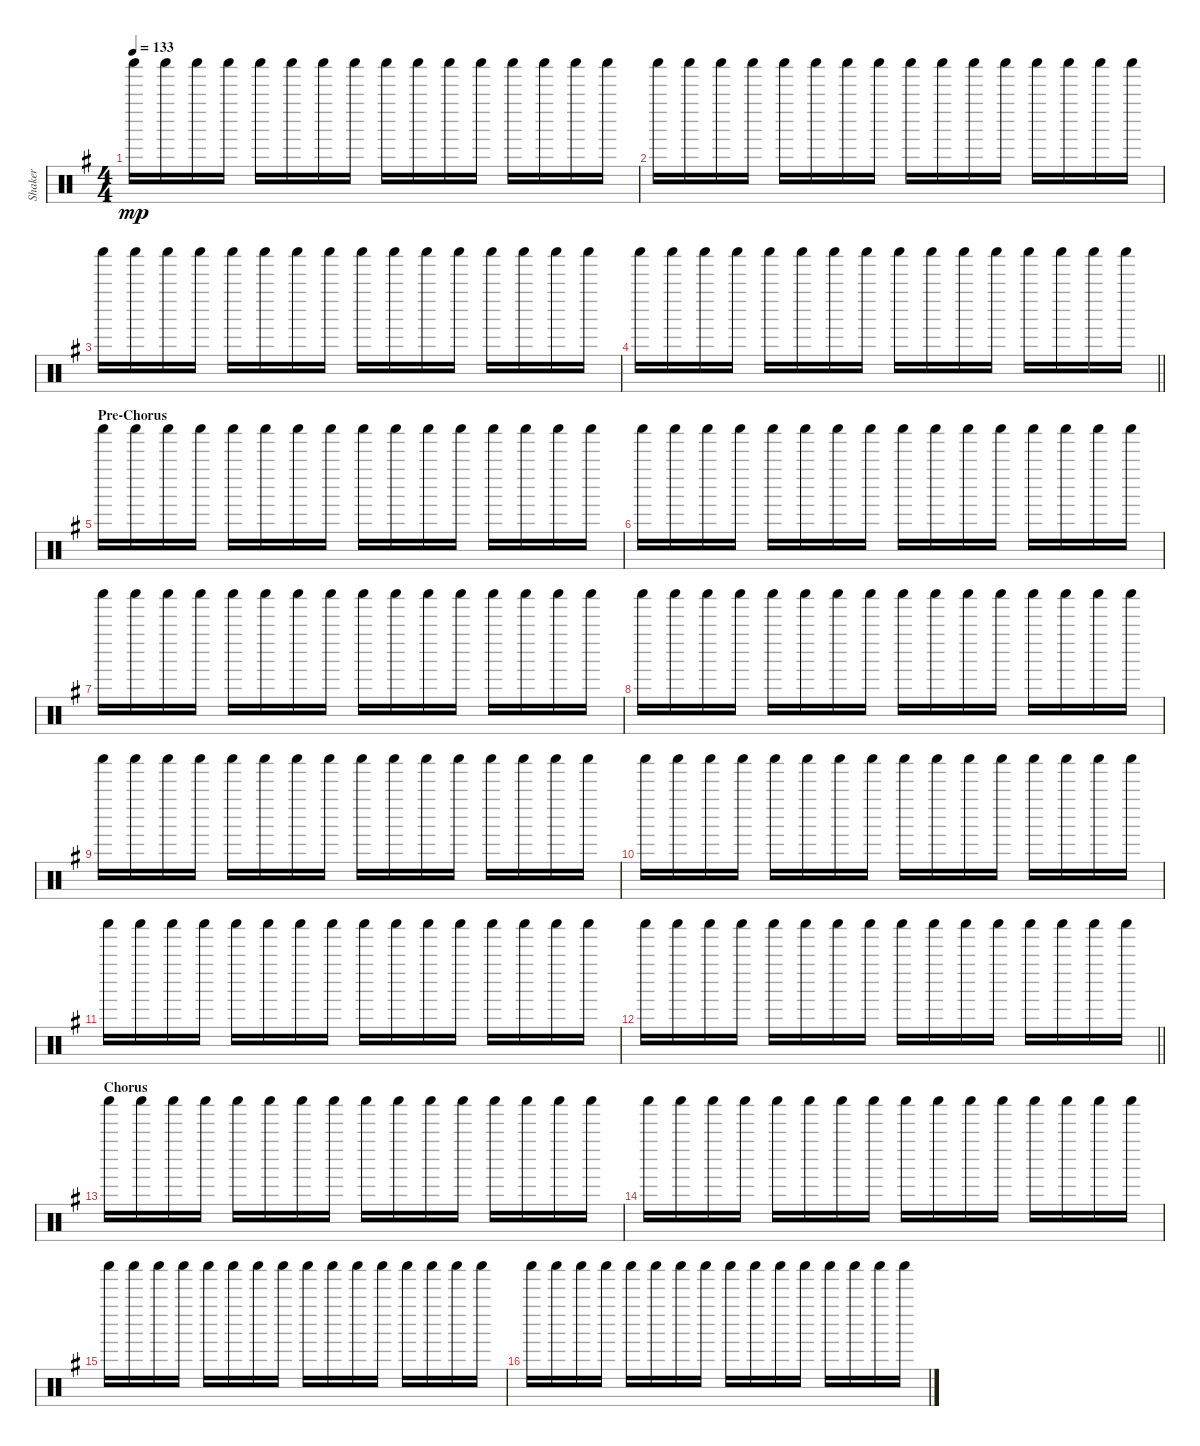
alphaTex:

\track ("Shaker" "Shaker") {instrument percussion}
\staff {score}
\articulation defaults
\ts (4 4)
\tempo 133
\clef neutral
\ks g "Shaker (hit)".16{dy mp} "Shaker (hit)".16 "Shaker (hit)".16 "Shaker (hit)".16 "Shaker (hit)".16 "Shaker (hit)".16 "Shaker (hit)".16 "Shaker (hit)".16 "Shaker (hit)".16 "Shaker (hit)".16 "Shaker (hit)".16 "Shaker (hit)".16 "Shaker (hit)".16 "Shaker (hit)".16 "Shaker (hit)".16 "Shaker (hit)".16
|
"Shaker (hit)".16 "Shaker (hit)".16 "Shaker (hit)".16 "Shaker (hit)".16 "Shaker (hit)".16 "Shaker (hit)".16 "Shaker (hit)".16 "Shaker (hit)".16 "Shaker (hit)".16 "Shaker (hit)".16 "Shaker (hit)".16 "Shaker (hit)".16 "Shaker (hit)".16 "Shaker (hit)".16 "Shaker (hit)".16 "Shaker (hit)".16 |
"Shaker (hit)".16 "Shaker (hit)".16 "Shaker (hit)".16 "Shaker (hit)".16 "Shaker (hit)".16 "Shaker (hit)".16 "Shaker (hit)".16 "Shaker (hit)".16 "Shaker (hit)".16 "Shaker (hit)".16 "Shaker (hit)".16 "Shaker (hit)".16 "Shaker (hit)".16 "Shaker (hit)".16 "Shaker (hit)".16 "Shaker (hit)".16 |
\barLineRight lightlight "Shaker (hit)".16 "Shaker (hit)".16 "Shaker (hit)".16 "Shaker (hit)".16 "Shaker (hit)".16 "Shaker (hit)".16 "Shaker (hit)".16 "Shaker (hit)".16 "Shaker (hit)".16 "Shaker (hit)".16 "Shaker (hit)".16 "Shaker (hit)".16 "Shaker (hit)".16 "Shaker (hit)".16 "Shaker (hit)".16 "Shaker (hit)".16
|
\section ("" "Pre-Chorus")
"Shaker (hit)".16 "Shaker (hit)".16 "Shaker (hit)".16 "Shaker (hit)".16 "Shaker (hit)".16 "Shaker (hit)".16 "Shaker (hit)".16 "Shaker (hit)".16 "Shaker (hit)".16 "Shaker (hit)".16 "Shaker (hit)".16 "Shaker (hit)".16 "Shaker (hit)".16 "Shaker (hit)".16 "Shaker (hit)".16 "Shaker (hit)".16 |
"Shaker (hit)".16 "Shaker (hit)".16 "Shaker (hit)".16 "Shaker (hit)".16 "Shaker (hit)".16 "Shaker (hit)".16 "Shaker (hit)".16 "Shaker (hit)".16 "Shaker (hit)".16 "Shaker (hit)".16 "Shaker (hit)".16 "Shaker (hit)".16 "Shaker (hit)".16 "Shaker (hit)".16 "Shaker (hit)".16 "Shaker (hit)".16 |
"Shaker (hit)".16 "Shaker (hit)".16 "Shaker (hit)".16 "Shaker (hit)".16 "Shaker (hit)".16 "Shaker (hit)".16 "Shaker (hit)".16 "Shaker (hit)".16 "Shaker (hit)".16 "Shaker (hit)".16 "Shaker (hit)".16 "Shaker (hit)".16 "Shaker (hit)".16 "Shaker (hit)".16 "Shaker (hit)".16 "Shaker (hit)".16 |
"Shaker (hit)".16 "Shaker (hit)".16 "Shaker (hit)".16 "Shaker (hit)".16 "Shaker (hit)".16 "Shaker (hit)".16 "Shaker (hit)".16 "Shaker (hit)".16 "Shaker (hit)".16 "Shaker (hit)".16 "Shaker (hit)".16 "Shaker (hit)".16 "Shaker (hit)".16 "Shaker (hit)".16 "Shaker (hit)".16 "Shaker (hit)".16 |
"Shaker (hit)".16 "Shaker (hit)".16 "Shaker (hit)".16 "Shaker (hit)".16 "Shaker (hit)".16 "Shaker (hit)".16 "Shaker (hit)".16 "Shaker (hit)".16 "Shaker (hit)".16 "Shaker (hit)".16 "Shaker (hit)".16 "Shaker (hit)".16 "Shaker (hit)".16 "Shaker (hit)".16 "Shaker (hit)".16 "Shaker (hit)".16 |
"Shaker (hit)".16 "Shaker (hit)".16 "Shaker (hit)".16 "Shaker (hit)".16 "Shaker (hit)".16 "Shaker (hit)".16 "Shaker (hit)".16 "Shaker (hit)".16 "Shaker (hit)".16 "Shaker (hit)".16 "Shaker (hit)".16 "Shaker (hit)".16 "Shaker (hit)".16 "Shaker (hit)".16 "Shaker (hit)".16 "Shaker (hit)".16 |
"Shaker (hit)".16 "Shaker (hit)".16 "Shaker (hit)".16 "Shaker (hit)".16 "Shaker (hit)".16 "Shaker (hit)".16 "Shaker (hit)".16 "Shaker (hit)".16 "Shaker (hit)".16 "Shaker (hit)".16 "Shaker (hit)".16 "Shaker (hit)".16 "Shaker (hit)".16 "Shaker (hit)".16 "Shaker (hit)".16 "Shaker (hit)".16 |
\barLineRight lightlight "Shaker (hit)".16 "Shaker (hit)".16 "Shaker (hit)".16 "Shaker (hit)".16 "Shaker (hit)".16 "Shaker (hit)".16 "Shaker (hit)".16 "Shaker (hit)".16 "Shaker (hit)".16 "Shaker (hit)".16 "Shaker (hit)".16 "Shaker (hit)".16 "Shaker (hit)".16 "Shaker (hit)".16 "Shaker (hit)".16 "Shaker (hit)".16
|
\section ("" "Chorus")
"Shaker (hit)".16 "Shaker (hit)".16 "Shaker (hit)".16 "Shaker (hit)".16 "Shaker (hit)".16 "Shaker (hit)".16 "Shaker (hit)".16 "Shaker (hit)".16 "Shaker (hit)".16 "Shaker (hit)".16 "Shaker (hit)".16 "Shaker (hit)".16 "Shaker (hit)".16 "Shaker (hit)".16 "Shaker (hit)".16 "Shaker (hit)".16 |
"Shaker (hit)".16 "Shaker (hit)".16 "Shaker (hit)".16 "Shaker (hit)".16 "Shaker (hit)".16 "Shaker (hit)".16 "Shaker (hit)".16 "Shaker (hit)".16 "Shaker (hit)".16 "Shaker (hit)".16 "Shaker (hit)".16 "Shaker (hit)".16 "Shaker (hit)".16 "Shaker (hit)".16 "Shaker (hit)".16 "Shaker (hit)".16 |
"Shaker (hit)".16 "Shaker (hit)".16 "Shaker (hit)".16 "Shaker (hit)".16 "Shaker (hit)".16 "Shaker (hit)".16 "Shaker (hit)".16 "Shaker (hit)".16 "Shaker (hit)".16 "Shaker (hit)".16 "Shaker (hit)".16 "Shaker (hit)".16 "Shaker (hit)".16 "Shaker (hit)".16 "Shaker (hit)".16 "Shaker (hit)".16 |
"Shaker (hit)".16 "Shaker (hit)".16 "Shaker (hit)".16 "Shaker (hit)".16 "Shaker (hit)".16 "Shaker (hit)".16 "Shaker (hit)".16 "Shaker (hit)".16 "Shaker (hit)".16 "Shaker (hit)".16 "Shaker (hit)".16 "Shaker (hit)".16 "Shaker (hit)".16 "Shaker (hit)".16 "Shaker (hit)".16 "Shaker (hit)".16
